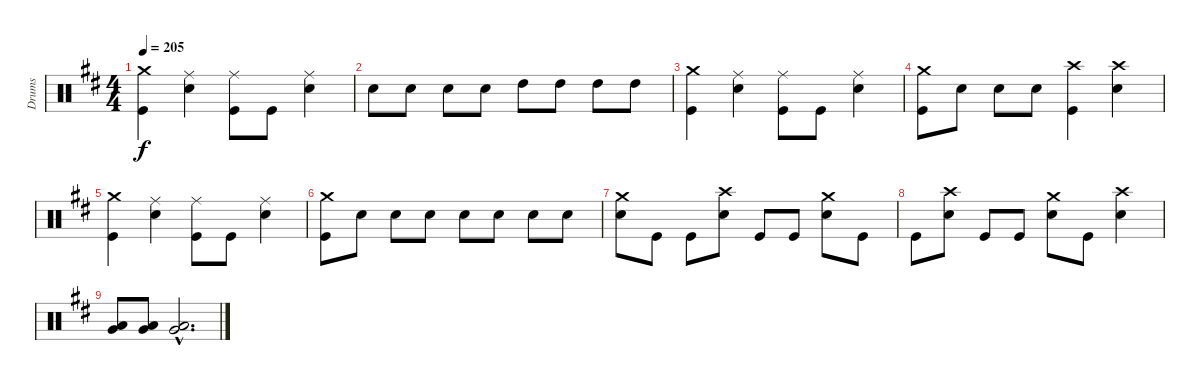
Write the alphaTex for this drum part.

\track ("Drums" "Drums") {instrument percussion}
\staff {score}
\articulation defaults
\ts (4 4)
\tempo 205
\clef neutral
\ks d
("Crash medium (hit)" "Kick (hit)").4{dy f} ("Ride (middle)" "Electric Snare (hit)").4 ("Ride (middle)" "Kick (hit)").8 "Kick (hit)".8 ("Ride (middle)" "Electric Snare (hit)").4 |
"Electric Snare (hit)".8 "Electric Snare (hit)".8 "Electric Snare (hit)".8 "Electric Snare (hit)".8 "High Tom (hit)".8 "High Tom (hit)".8 "High Tom (hit)".8 "High Tom (hit)".8 |
("Crash medium (hit)" "Kick (hit)").4 ("Ride (middle)" "Electric Snare (hit)").4 ("Ride (middle)" "Kick (hit)").8 "Kick (hit)".8 ("Ride (middle)" "Electric Snare (hit)").4 |
("Crash medium (hit)" "Kick (hit)").8 "Electric Snare (hit)".8 "Electric Snare (hit)".8 "Electric Snare (hit)".8 ("Crash high (hit)" "Kick (hit)").4 ("Electric Snare (hit)" "Crash high (hit)").4 |
("Crash medium (hit)" "Kick (hit)").4 ("Electric Snare (hit)" "Ride (middle)").4 ("Kick (hit)" "Ride (middle)").8 "Kick (hit)".8 ("Electric Snare (hit)" "Ride (middle)").4 |
("Crash medium (hit)" "Kick (hit)").8 "Electric Snare (hit)".8 "Electric Snare (hit)".8 "Electric Snare (hit)".8 "Electric Snare (hit)".8 "Electric Snare (hit)".8 "Electric Snare (hit)".8 "Electric Snare (hit)".8 |
("Electric Snare (hit)" "Crash medium (hit)").8 "Kick (hit)".8 "Kick (hit)".8 ("Electric Snare (hit)" "Crash high (hit)").8 "Kick (hit)".8 "Kick (hit)".8 ("Electric Snare (hit)" "Crash medium (hit)").8 "Kick (hit)".8 |
"Kick (hit)".8 ("Electric Snare (hit)" "Crash high (hit)").8 "Kick (hit)".8 "Kick (hit)".8 ("Electric Snare (hit)" "Crash medium (hit)").8 "Kick (hit)".8 ("Electric Snare (hit)" "Crash high (hit)").4 |
("Low Floor Tom (hit)" "Very Low Tom (hit)").8 ("Low Floor Tom (hit)" "Very Low Tom (hit)").8 ("Low Floor Tom (hit)"{hac} "Very Low Tom (hit)"{hac}).2{d}
